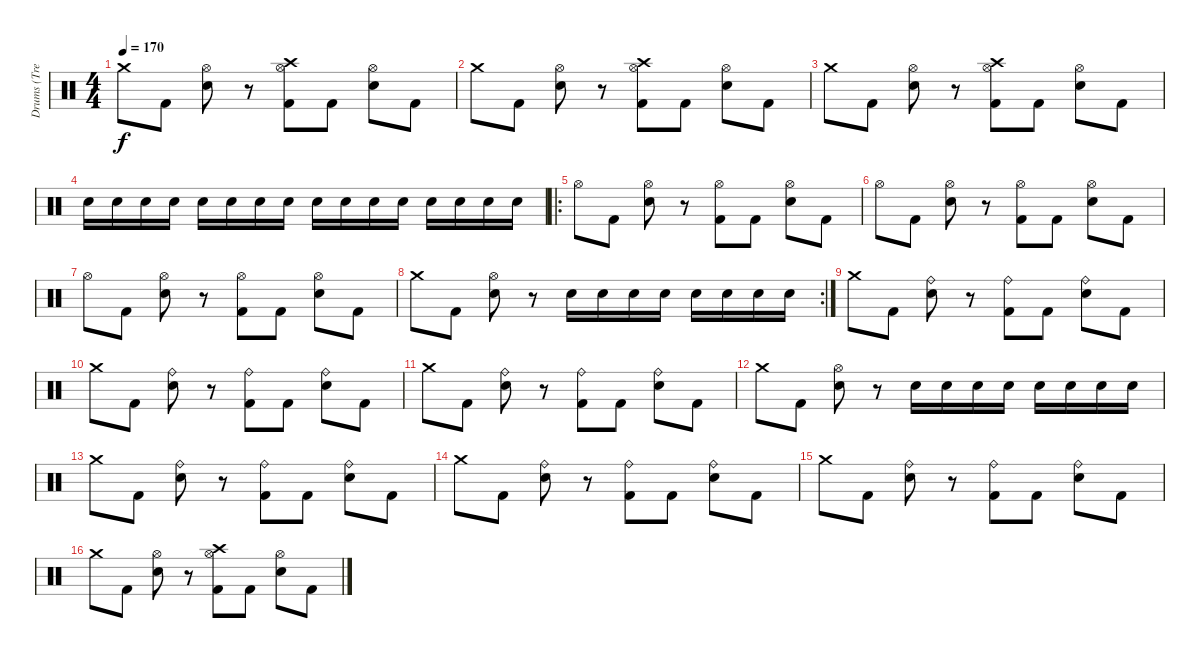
\track ("Drums (Tre Cool)" "Drums (Tre") {instrument percussion}
\staff {score}
\articulation defaults
\ts (4 4)
\tempo 170
\clef neutral
\ks c "Crash medium (hit)".8{dy f} "Kick (hit) 2".8
("Hi-Hat (open)" "Electric Snare (hit)").8 r.8 ("Crash high (hit)" "Hi-Hat (open)" "Kick (hit) 2").8 "Kick (hit) 2".8 ("Hi-Hat (open)" "Electric Snare (hit)").8 "Kick (hit) 2".8 |
"Crash medium (hit)".8 "Kick (hit) 2".8 ("Hi-Hat (open)" "Electric Snare (hit)").8 r.8 ("Crash high (hit)" "Hi-Hat (open)" "Kick (hit) 2").8 "Kick (hit) 2".8 ("Hi-Hat (open)" "Electric Snare (hit)").8 "Kick (hit) 2".8 |
"Crash medium (hit)".8 "Kick (hit) 2".8 ("Hi-Hat (open)" "Electric Snare (hit)").8 r.8 ("Crash high (hit)" "Hi-Hat (open)" "Kick (hit) 2").8 "Kick (hit) 2".8 ("Hi-Hat (open)" "Electric Snare (hit)").8 "Kick (hit) 2".8 |
"Electric Snare (hit)".16 "Electric Snare (hit)".16 "Electric Snare (hit)".16 "Electric Snare (hit)".16 "Electric Snare (hit)".16 "Electric Snare (hit)".16 "Electric Snare (hit)".16 "Electric Snare (hit)".16 "Electric Snare (hit)".16 "Electric Snare (hit)".16 "Electric Snare (hit)".16 "Electric Snare (hit)".16 "Electric Snare (hit)".16 "Electric Snare (hit)".16 "Electric Snare (hit)".16 "Electric Snare (hit)".16 |
\ro "Hi-Hat (open)".8 "Kick (hit) 2".8
("Hi-Hat (open)" "Electric Snare (hit)").8 r.8 ("Hi-Hat (open)" "Kick (hit) 2").8 "Kick (hit) 2".8 ("Hi-Hat (open)" "Electric Snare (hit)").8 "Kick (hit) 2".8 |
"Hi-Hat (open)".8 "Kick (hit) 2".8 ("Hi-Hat (open)" "Electric Snare (hit)").8 r.8 ("Hi-Hat (open)" "Kick (hit) 2").8 "Kick (hit) 2".8 ("Hi-Hat (open)" "Electric Snare (hit)").8 "Kick (hit) 2".8 |
"Hi-Hat (open)".8 "Kick (hit) 2".8 ("Hi-Hat (open)" "Electric Snare (hit)").8 r.8 ("Hi-Hat (open)" "Kick (hit) 2").8 "Kick (hit) 2".8 ("Hi-Hat (open)" "Electric Snare (hit)").8 "Kick (hit) 2".8 |
\rc 2 "Crash medium (hit)".8 "Kick (hit) 2".8
("Hi-Hat (open)" "Electric Snare (hit)").8 r.8 "Electric Snare (hit)".16 "Electric Snare (hit)".16 "Electric Snare (hit)".16 "Electric Snare (hit)".16 "Electric Snare (hit)".16 "Electric Snare (hit)".16 "Electric Snare (hit)".16 "Electric Snare (hit)".16 |
"Crash medium (hit)".8 "Kick (hit) 2".8 ("Ride (bell)" "Electric Snare (hit)").8 r.8 ("Ride (bell)" "Kick (hit) 2").8 "Kick (hit) 2".8 ("Ride (bell)" "Electric Snare (hit)").8 "Kick (hit) 2".8 |
"Crash medium (hit)".8 "Kick (hit) 2".8 ("Ride (bell)" "Electric Snare (hit)").8 r.8 ("Ride (bell)" "Kick (hit) 2").8 "Kick (hit) 2".8 ("Ride (bell)" "Electric Snare (hit)").8 "Kick (hit) 2".8 |
"Crash medium (hit)".8 "Kick (hit) 2".8 ("Ride (bell)" "Electric Snare (hit)").8 r.8 ("Ride (bell)" "Kick (hit) 2").8 "Kick (hit) 2".8 ("Ride (bell)" "Electric Snare (hit)").8 "Kick (hit) 2".8 |
"Crash medium (hit)".8 "Kick (hit) 2".8 ("Hi-Hat (open)" "Electric Snare (hit)").8 r.8 "Electric Snare (hit)".16 "Electric Snare (hit)".16 "Electric Snare (hit)".16 "Electric Snare (hit)".16 "Electric Snare (hit)".16 "Electric Snare (hit)".16 "Electric Snare (hit)".16 "Electric Snare (hit)".16 |
"Crash medium (hit)".8 "Kick (hit) 2".8 ("Ride (bell)" "Electric Snare (hit)").8 r.8 ("Ride (bell)" "Kick (hit) 2").8 "Kick (hit) 2".8 ("Ride (bell)" "Electric Snare (hit)").8 "Kick (hit) 2".8 |
"Crash medium (hit)".8 "Kick (hit) 2".8 ("Ride (bell)" "Electric Snare (hit)").8 r.8 ("Ride (bell)" "Kick (hit) 2").8 "Kick (hit) 2".8 ("Ride (bell)" "Electric Snare (hit)").8 "Kick (hit) 2".8 |
"Crash medium (hit)".8 "Kick (hit) 2".8 ("Ride (bell)" "Electric Snare (hit)").8 r.8 ("Ride (bell)" "Kick (hit) 2").8 "Kick (hit) 2".8 ("Ride (bell)" "Electric Snare (hit)").8 "Kick (hit) 2".8 |
"Crash medium (hit)".8 "Kick (hit) 2".8 ("Hi-Hat (open)" "Electric Snare (hit)").8 r.8 ("Crash high (hit)" "Hi-Hat (open)" "Kick (hit) 2").8 "Kick (hit) 2".8 ("Hi-Hat (open)" "Electric Snare (hit)").8 "Kick (hit) 2".8
